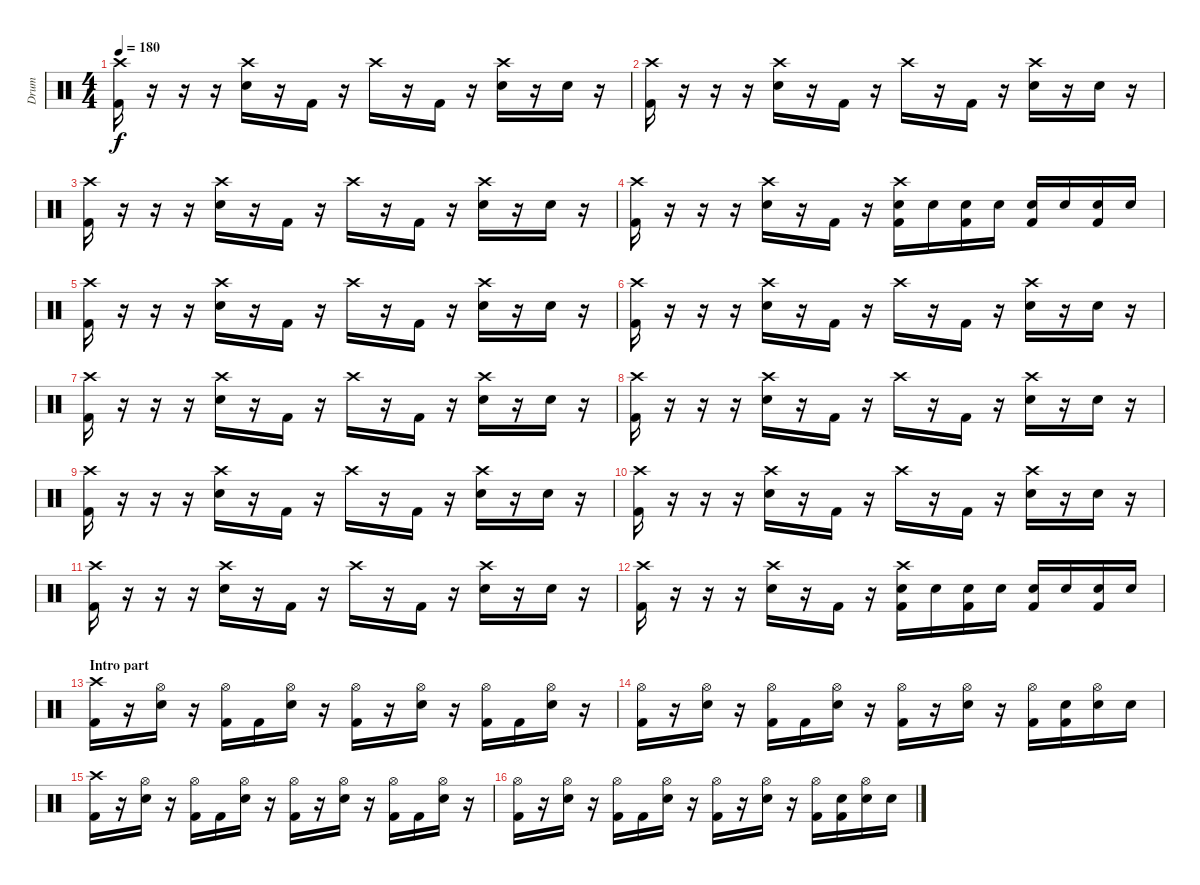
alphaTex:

\track ("Drum" "Drum") {instrument percussion}
\staff {score}
\articulation defaults
\ts (4 4)
\tempo 180
\clef neutral
\ks c
("Crash high (hit)" "Kick (hit) 2").16{dy f} r.16 r.16 r.16 ("Crash high (hit)" "Electric Snare (hit)").16 r.16 "Kick (hit) 2".16 r.16 "Crash high (hit)".16 r.16 "Kick (hit) 2".16 r.16 ("Crash high (hit)" "Electric Snare (hit)").16 r.16 "Electric Snare (hit)".16 r.16 |
("Crash high (hit)" "Kick (hit) 2").16 r.16 r.16 r.16 ("Crash high (hit)" "Electric Snare (hit)").16 r.16 "Kick (hit) 2".16 r.16 "Crash high (hit)".16 r.16 "Kick (hit) 2".16 r.16 ("Crash high (hit)" "Electric Snare (hit)").16 r.16 "Electric Snare (hit)".16 r.16 |
("Crash high (hit)" "Kick (hit) 2").16 r.16 r.16 r.16 ("Crash high (hit)" "Electric Snare (hit)").16 r.16 "Kick (hit) 2".16 r.16 "Crash high (hit)".16 r.16 "Kick (hit) 2".16 r.16 ("Crash high (hit)" "Electric Snare (hit)").16 r.16 "Electric Snare (hit)".16 r.16 |
("Crash high (hit)" "Kick (hit) 2").16 r.16 r.16 r.16 ("Crash high (hit)" "Electric Snare (hit)").16 r.16 "Kick (hit) 2".16 r.16 ("Crash high (hit)" "Electric Snare (hit)" "Kick (hit) 2").16 "Electric Snare (hit)".16 ("Electric Snare (hit)" "Kick (hit) 2").16 "Electric Snare (hit)".16 ("Electric Snare (hit)" "Kick (hit) 2").16 "Electric Snare (hit)".16 ("Electric Snare (hit)" "Kick (hit) 2").16 "Electric Snare (hit)".16 |
("Crash high (hit)" "Kick (hit) 2").16 r.16 r.16 r.16 ("Crash high (hit)" "Electric Snare (hit)").16 r.16 "Kick (hit) 2".16 r.16 "Crash high (hit)".16 r.16 "Kick (hit) 2".16 r.16 ("Crash high (hit)" "Electric Snare (hit)").16 r.16 "Electric Snare (hit)".16 r.16 |
("Crash high (hit)" "Kick (hit) 2").16 r.16 r.16 r.16 ("Crash high (hit)" "Electric Snare (hit)").16 r.16 "Kick (hit) 2".16 r.16 "Crash high (hit)".16 r.16 "Kick (hit) 2".16 r.16 ("Crash high (hit)" "Electric Snare (hit)").16 r.16 "Electric Snare (hit)".16 r.16 |
("Crash high (hit)" "Kick (hit) 2").16 r.16 r.16 r.16 ("Crash high (hit)" "Electric Snare (hit)").16 r.16 "Kick (hit) 2".16 r.16 "Crash high (hit)".16 r.16 "Kick (hit) 2".16 r.16 ("Crash high (hit)" "Electric Snare (hit)").16 r.16 "Electric Snare (hit)".16 r.16 |
("Crash high (hit)" "Kick (hit) 2").16 r.16 r.16 r.16 ("Crash high (hit)" "Electric Snare (hit)").16 r.16 "Kick (hit) 2".16 r.16 "Crash high (hit)".16 r.16 "Kick (hit) 2".16 r.16 ("Crash high (hit)" "Electric Snare (hit)").16 r.16 "Electric Snare (hit)".16 r.16 |
("Crash high (hit)" "Kick (hit) 2").16 r.16 r.16 r.16 ("Crash high (hit)" "Electric Snare (hit)").16 r.16 "Kick (hit) 2".16 r.16 "Crash high (hit)".16 r.16 "Kick (hit) 2".16 r.16 ("Crash high (hit)" "Electric Snare (hit)").16 r.16 "Electric Snare (hit)".16 r.16 |
("Crash high (hit)" "Kick (hit) 2").16 r.16 r.16 r.16 ("Crash high (hit)" "Electric Snare (hit)").16 r.16 "Kick (hit) 2".16 r.16 "Crash high (hit)".16 r.16 "Kick (hit) 2".16 r.16 ("Crash high (hit)" "Electric Snare (hit)").16 r.16 "Electric Snare (hit)".16 r.16 |
("Crash high (hit)" "Kick (hit) 2").16 r.16 r.16 r.16 ("Crash high (hit)" "Electric Snare (hit)").16 r.16 "Kick (hit) 2".16 r.16 "Crash high (hit)".16 r.16 "Kick (hit) 2".16 r.16 ("Crash high (hit)" "Electric Snare (hit)").16 r.16 "Electric Snare (hit)".16 r.16 |
("Crash high (hit)" "Kick (hit) 2").16 r.16 r.16 r.16 ("Crash high (hit)" "Electric Snare (hit)").16 r.16 "Kick (hit) 2".16 r.16 ("Crash high (hit)" "Electric Snare (hit)" "Kick (hit) 2").16 "Electric Snare (hit)".16 ("Electric Snare (hit)" "Kick (hit) 2").16 "Electric Snare (hit)".16 ("Electric Snare (hit)" "Kick (hit) 2").16 "Electric Snare (hit)".16 ("Electric Snare (hit)" "Kick (hit) 2").16 "Electric Snare (hit)".16 |
\section ("" "Intro part")
("Crash high (hit)" "Kick (hit) 2").16 r.16 ("Hi-Hat (open)" "Electric Snare (hit)").16 r.16 ("Hi-Hat (open)" "Kick (hit) 2").16 "Kick (hit) 2".16 ("Hi-Hat (open)" "Electric Snare (hit)").16 r.16 ("Hi-Hat (open)" "Kick (hit) 2").16 r.16 ("Hi-Hat (open)" "Electric Snare (hit)").16 r.16 ("Hi-Hat (open)" "Kick (hit) 2").16 "Kick (hit) 2".16 ("Hi-Hat (open)" "Electric Snare (hit)").16 r.16 |
("Hi-Hat (open)" "Kick (hit) 2").16 r.16 ("Hi-Hat (open)" "Electric Snare (hit)").16 r.16 ("Hi-Hat (open)" "Kick (hit) 2").16 "Kick (hit) 2".16 ("Hi-Hat (open)" "Electric Snare (hit)").16 r.16 ("Hi-Hat (open)" "Kick (hit) 2").16 r.16 ("Hi-Hat (open)" "Electric Snare (hit)").16 r.16 ("Hi-Hat (open)" "Kick (hit) 2").16 ("Electric Snare (hit)" "Kick (hit) 2").16 ("Hi-Hat (open)" "Electric Snare (hit)").16 "Electric Snare (hit)".16 |
("Crash high (hit)" "Kick (hit) 2").16 r.16 ("Hi-Hat (open)" "Electric Snare (hit)").16 r.16 ("Hi-Hat (open)" "Kick (hit) 2").16 "Kick (hit) 2".16 ("Hi-Hat (open)" "Electric Snare (hit)").16 r.16 ("Hi-Hat (open)" "Kick (hit) 2").16 r.16 ("Hi-Hat (open)" "Electric Snare (hit)").16 r.16 ("Hi-Hat (open)" "Kick (hit) 2").16 "Kick (hit) 2".16 ("Hi-Hat (open)" "Electric Snare (hit)").16 r.16 |
("Hi-Hat (open)" "Kick (hit) 2").16 r.16 ("Hi-Hat (open)" "Electric Snare (hit)").16 r.16 ("Hi-Hat (open)" "Kick (hit) 2").16 "Kick (hit) 2".16 ("Hi-Hat (open)" "Electric Snare (hit)").16 r.16 ("Hi-Hat (open)" "Kick (hit) 2").16 r.16 ("Hi-Hat (open)" "Electric Snare (hit)").16 r.16 ("Hi-Hat (open)" "Kick (hit) 2").16 ("Electric Snare (hit)" "Kick (hit) 2").16 ("Hi-Hat (open)" "Electric Snare (hit)").16 "Electric Snare (hit)".16
